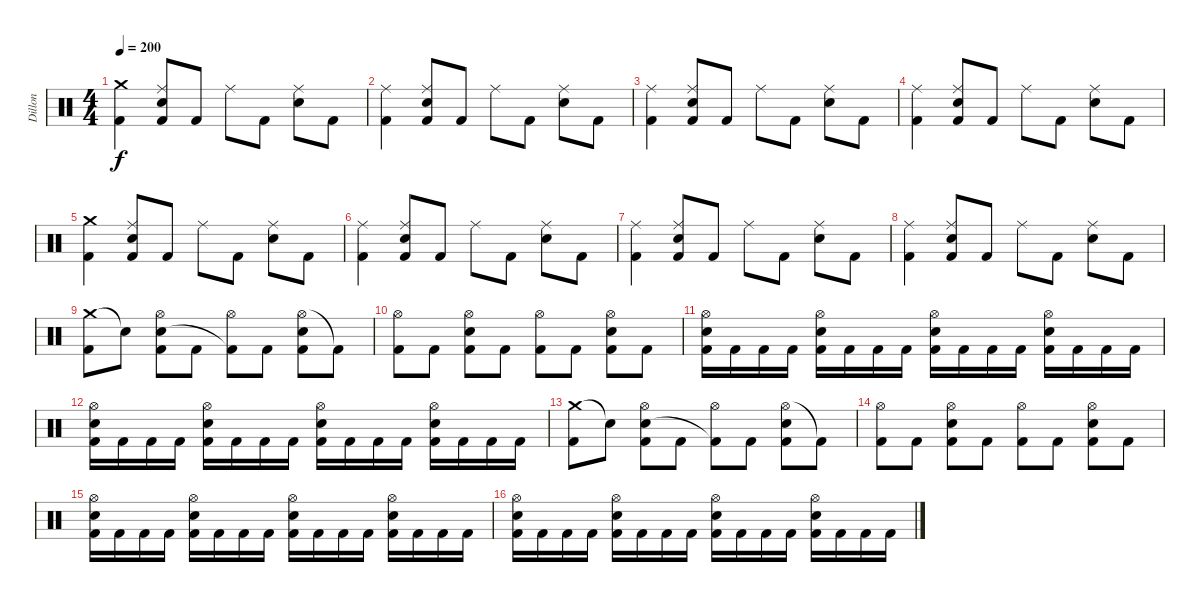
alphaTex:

\track ("Dillon" "Dillon") {instrument percussion}
\staff {score}
\articulation defaults
\ts (4 4)
\tempo 200
\clef neutral
\ks c
("Crash medium (hit)" "Kick (hit) 2").4{dy f} ("Ride (middle)" "Electric Snare (hit)" "Kick (hit) 2").8 "Kick (hit) 2".8 "Ride (middle)".8 "Kick (hit) 2".8 ("Ride (middle)" "Electric Snare (hit)").8 "Kick (hit) 2".8 |
("Ride (middle)" "Kick (hit) 2").4 ("Ride (middle)" "Electric Snare (hit)" "Kick (hit) 2").8 "Kick (hit) 2".8 "Ride (middle)".8 "Kick (hit) 2".8 ("Ride (middle)" "Electric Snare (hit)").8 "Kick (hit) 2".8 |
("Ride (middle)" "Kick (hit) 2").4 ("Ride (middle)" "Electric Snare (hit)" "Kick (hit) 2").8 "Kick (hit) 2".8 "Ride (middle)".8 "Kick (hit) 2".8 ("Ride (middle)" "Electric Snare (hit)").8 "Kick (hit) 2".8 |
("Ride (middle)" "Kick (hit) 2").4 ("Ride (middle)" "Electric Snare (hit)" "Kick (hit) 2").8 "Kick (hit) 2".8 "Ride (middle)".8 "Kick (hit) 2".8 ("Ride (middle)" "Electric Snare (hit)").8 "Kick (hit) 2".8 |
("Crash medium (hit)" "Kick (hit) 2").4 ("Ride (middle)" "Electric Snare (hit)" "Kick (hit) 2").8 "Kick (hit) 2".8 "Ride (middle)".8 "Kick (hit) 2".8 ("Ride (middle)" "Electric Snare (hit)").8 "Kick (hit) 2".8 |
("Ride (middle)" "Kick (hit) 2").4 ("Ride (middle)" "Electric Snare (hit)" "Kick (hit) 2").8 "Kick (hit) 2".8 "Ride (middle)".8 "Kick (hit) 2".8 ("Ride (middle)" "Electric Snare (hit)").8 "Kick (hit) 2".8 |
("Ride (middle)" "Kick (hit) 2").4 ("Ride (middle)" "Electric Snare (hit)" "Kick (hit) 2").8 "Kick (hit) 2".8 "Ride (middle)".8 "Kick (hit) 2".8 ("Ride (middle)" "Electric Snare (hit)").8 "Kick (hit) 2".8 |
("Ride (middle)" "Kick (hit) 2").4 ("Ride (middle)" "Electric Snare (hit)" "Kick (hit) 2").8 "Kick (hit) 2".8 "Ride (middle)".8 "Kick (hit) 2".8 ("Ride (middle)" "Electric Snare (hit)").8 "Kick (hit) 2".8 |
("Crash medium (hit)" "Kick (hit) 2").8 "Snare (hit)"{t}.8 ("Hi-Hat (open)" "Electric Snare (hit)" "Kick (hit) 2").8 "Kick (hit) 2".8 ("Hi-Hat (open)" "Kick (hit) 2"{t}).8 "Kick (hit) 2".8 ("Hi-Hat (open)" "Electric Snare (hit)" "Kick (hit) 2").8 "Kick (hit) 2"{t}.8 |
("Hi-Hat (open)" "Kick (hit) 2").8 "Kick (hit) 2".8 ("Hi-Hat (open)" "Electric Snare (hit)" "Kick (hit) 2").8 "Kick (hit) 2".8 ("Hi-Hat (open)" "Kick (hit) 2").8 "Kick (hit) 2".8 ("Hi-Hat (open)" "Electric Snare (hit)" "Kick (hit) 2").8 "Kick (hit) 2".8 |
("Hi-Hat (open)" "Electric Snare (hit)" "Kick (hit) 2").16 "Kick (hit) 2".16 "Kick (hit) 2".16 "Kick (hit) 2".16 ("Hi-Hat (open)" "Electric Snare (hit)" "Kick (hit) 2").16 "Kick (hit) 2".16 "Kick (hit) 2".16 "Kick (hit) 2".16 ("Hi-Hat (open)" "Electric Snare (hit)" "Kick (hit) 2").16 "Kick (hit) 2".16 "Kick (hit) 2".16 "Kick (hit) 2".16 ("Hi-Hat (open)" "Electric Snare (hit)" "Kick (hit) 2").16 "Kick (hit) 2".16 "Kick (hit) 2".16 "Kick (hit) 2".16 |
("Hi-Hat (open)" "Electric Snare (hit)" "Kick (hit) 2").16 "Kick (hit) 2".16 "Kick (hit) 2".16 "Kick (hit) 2".16 ("Hi-Hat (open)" "Electric Snare (hit)" "Kick (hit) 2").16 "Kick (hit) 2".16 "Kick (hit) 2".16 "Kick (hit) 2".16 ("Hi-Hat (open)" "Electric Snare (hit)" "Kick (hit) 2").16 "Kick (hit) 2".16 "Kick (hit) 2".16 "Kick (hit) 2".16 ("Hi-Hat (open)" "Electric Snare (hit)" "Kick (hit) 2").16 "Kick (hit) 2".16 "Kick (hit) 2".16 "Kick (hit) 2".16 |
("Crash medium (hit)" "Kick (hit) 2").8 "Snare (hit)"{t}.8 ("Hi-Hat (open)" "Electric Snare (hit)" "Kick (hit) 2").8 "Kick (hit) 2".8 ("Hi-Hat (open)" "Kick (hit) 2"{t}).8 "Kick (hit) 2".8 ("Hi-Hat (open)" "Electric Snare (hit)" "Kick (hit) 2").8 "Kick (hit) 2"{t}.8 |
("Hi-Hat (open)" "Kick (hit) 2").8 "Kick (hit) 2".8 ("Hi-Hat (open)" "Electric Snare (hit)" "Kick (hit) 2").8 "Kick (hit) 2".8 ("Hi-Hat (open)" "Kick (hit) 2").8 "Kick (hit) 2".8 ("Hi-Hat (open)" "Electric Snare (hit)" "Kick (hit) 2").8 "Kick (hit) 2".8 |
("Hi-Hat (open)" "Electric Snare (hit)" "Kick (hit) 2").16 "Kick (hit) 2".16 "Kick (hit) 2".16 "Kick (hit) 2".16 ("Hi-Hat (open)" "Electric Snare (hit)" "Kick (hit) 2").16 "Kick (hit) 2".16 "Kick (hit) 2".16 "Kick (hit) 2".16 ("Hi-Hat (open)" "Electric Snare (hit)" "Kick (hit) 2").16 "Kick (hit) 2".16 "Kick (hit) 2".16 "Kick (hit) 2".16 ("Hi-Hat (open)" "Electric Snare (hit)" "Kick (hit) 2").16 "Kick (hit) 2".16 "Kick (hit) 2".16 "Kick (hit) 2".16 |
("Hi-Hat (open)" "Electric Snare (hit)" "Kick (hit) 2").16 "Kick (hit) 2".16 "Kick (hit) 2".16 "Kick (hit) 2".16 ("Hi-Hat (open)" "Electric Snare (hit)" "Kick (hit) 2").16 "Kick (hit) 2".16 "Kick (hit) 2".16 "Kick (hit) 2".16 ("Hi-Hat (open)" "Electric Snare (hit)" "Kick (hit) 2").16 "Kick (hit) 2".16 "Kick (hit) 2".16 "Kick (hit) 2".16 ("Hi-Hat (open)" "Electric Snare (hit)" "Kick (hit) 2").16 "Kick (hit) 2".16 "Kick (hit) 2".16 "Kick (hit) 2".16
